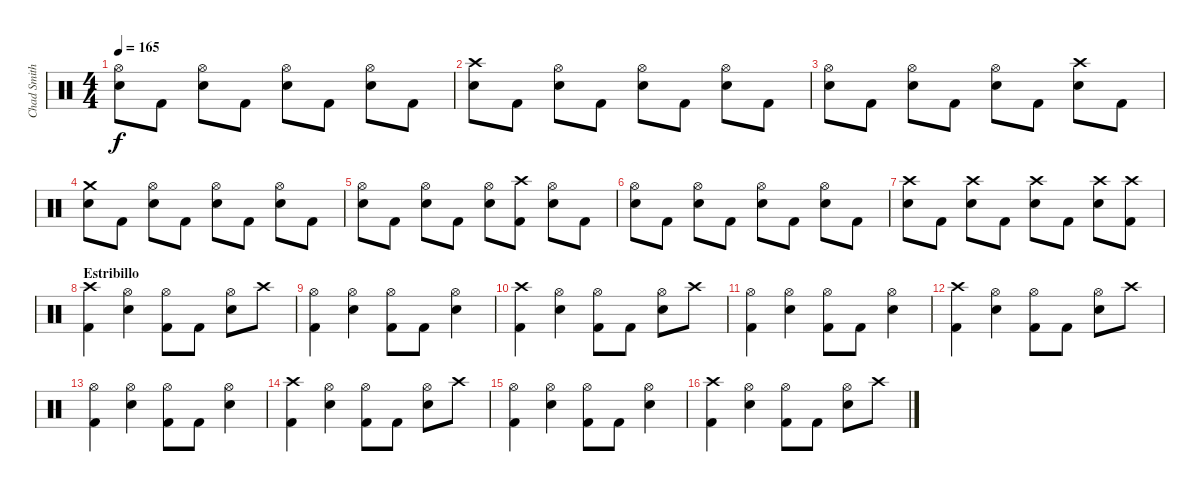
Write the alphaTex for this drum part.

\track ("Chad Smith" "Chad Smith") {instrument percussion}
\staff {score}
\articulation defaults
\ts (4 4)
\tempo 165
\clef neutral
\ks c
("Hi-Hat (open)" "Snare (hit) 2").8{dy f} "Kick (hit) 2".8 ("Hi-Hat (open)" "Snare (hit) 2").8 "Kick (hit) 2".8 ("Hi-Hat (open)" "Snare (hit) 2").8 "Kick (hit) 2".8 ("Hi-Hat (open)" "Snare (hit) 2").8 "Kick (hit) 2".8 |
("Crash high (hit)" "Snare (hit) 2").8 "Kick (hit) 2".8 ("Hi-Hat (open)" "Snare (hit) 2").8 "Kick (hit) 2".8 ("Hi-Hat (open)" "Snare (hit) 2").8 "Kick (hit) 2".8 ("Hi-Hat (open)" "Snare (hit) 2").8 "Kick (hit) 2".8 |
("Hi-Hat (open)" "Snare (hit) 2").8 "Kick (hit) 2".8 ("Hi-Hat (open)" "Snare (hit) 2").8 "Kick (hit) 2".8 ("Hi-Hat (open)" "Snare (hit) 2").8 "Kick (hit) 2".8 ("Crash high (hit)" "Snare (hit) 2").8 "Kick (hit) 2".8 |
("Crash medium (hit)" "Snare (hit) 2").8 "Kick (hit) 2".8 ("Hi-Hat (open)" "Snare (hit) 2").8 "Kick (hit) 2".8 ("Hi-Hat (open)" "Snare (hit) 2").8 "Kick (hit) 2".8 ("Hi-Hat (open)" "Snare (hit) 2").8 "Kick (hit) 2".8 |
("Hi-Hat (open)" "Snare (hit) 2").8 "Kick (hit) 2".8 ("Hi-Hat (open)" "Snare (hit) 2").8 "Kick (hit) 2".8 ("Hi-Hat (open)" "Snare (hit) 2").8 ("Crash high (hit)" "Kick (hit) 2").8 ("Hi-Hat (open)" "Snare (hit) 2").8 "Kick (hit) 2".8 |
("Hi-Hat (open)" "Snare (hit) 2").8 "Kick (hit) 2".8 ("Hi-Hat (open)" "Snare (hit) 2").8 "Kick (hit) 2".8 ("Hi-Hat (open)" "Snare (hit) 2").8 "Kick (hit) 2".8 ("Hi-Hat (open)" "Snare (hit) 2").8 "Kick (hit) 2".8 |
("Crash high (hit)" "Snare (hit) 2").8 "Kick (hit) 2".8 ("Crash high (hit)" "Snare (hit) 2").8 "Kick (hit) 2".8 ("Crash high (hit)" "Snare (hit) 2").8 "Kick (hit) 2".8 ("Crash high (hit)" "Snare (hit) 2").8 ("Crash high (hit)" "Kick (hit) 2").8 |
\section ("" "Estribillo")
("Crash high (hit)" "Kick (hit) 2").4 ("Hi-Hat (open)" "Snare (hit) 2").4 ("Hi-Hat (open)" "Kick (hit) 2").8 "Kick (hit) 2".8 ("Hi-Hat (open)" "Snare (hit) 2").8 "Crash high (hit)".8 |
("Hi-Hat (open)" "Kick (hit) 2").4 ("Hi-Hat (open)" "Snare (hit) 2").4 ("Hi-Hat (open)" "Kick (hit) 2").8 "Kick (hit) 2".8 ("Hi-Hat (open)" "Snare (hit) 2").4 |
("Crash high (hit)" "Kick (hit) 2").4 ("Hi-Hat (open)" "Snare (hit) 2").4 ("Hi-Hat (open)" "Kick (hit) 2").8 "Kick (hit) 2".8 ("Hi-Hat (open)" "Snare (hit) 2").8 "Crash high (hit)".8 |
("Hi-Hat (open)" "Kick (hit) 2").4 ("Hi-Hat (open)" "Snare (hit) 2").4 ("Hi-Hat (open)" "Kick (hit) 2").8 "Kick (hit) 2".8 ("Hi-Hat (open)" "Snare (hit) 2").4 |
("Crash high (hit)" "Kick (hit) 2").4 ("Hi-Hat (open)" "Snare (hit) 2").4 ("Hi-Hat (open)" "Kick (hit) 2").8 "Kick (hit) 2".8 ("Hi-Hat (open)" "Snare (hit) 2").8 "Crash high (hit)".8 |
("Hi-Hat (open)" "Kick (hit) 2").4 ("Hi-Hat (open)" "Snare (hit) 2").4 ("Hi-Hat (open)" "Kick (hit) 2").8 "Kick (hit) 2".8 ("Hi-Hat (open)" "Snare (hit) 2").4 |
("Crash high (hit)" "Kick (hit) 2").4 ("Hi-Hat (open)" "Snare (hit) 2").4 ("Hi-Hat (open)" "Kick (hit) 2").8 "Kick (hit) 2".8 ("Hi-Hat (open)" "Snare (hit) 2").8 "Crash high (hit)".8 |
("Hi-Hat (open)" "Kick (hit) 2").4 ("Hi-Hat (open)" "Snare (hit) 2").4 ("Hi-Hat (open)" "Kick (hit) 2").8 "Kick (hit) 2".8 ("Hi-Hat (open)" "Snare (hit) 2").4 |
("Crash high (hit)" "Kick (hit) 2").4 ("Hi-Hat (open)" "Snare (hit) 2").4 ("Hi-Hat (open)" "Kick (hit) 2").8 "Kick (hit) 2".8 ("Hi-Hat (open)" "Snare (hit) 2").8 "Crash high (hit)".8
